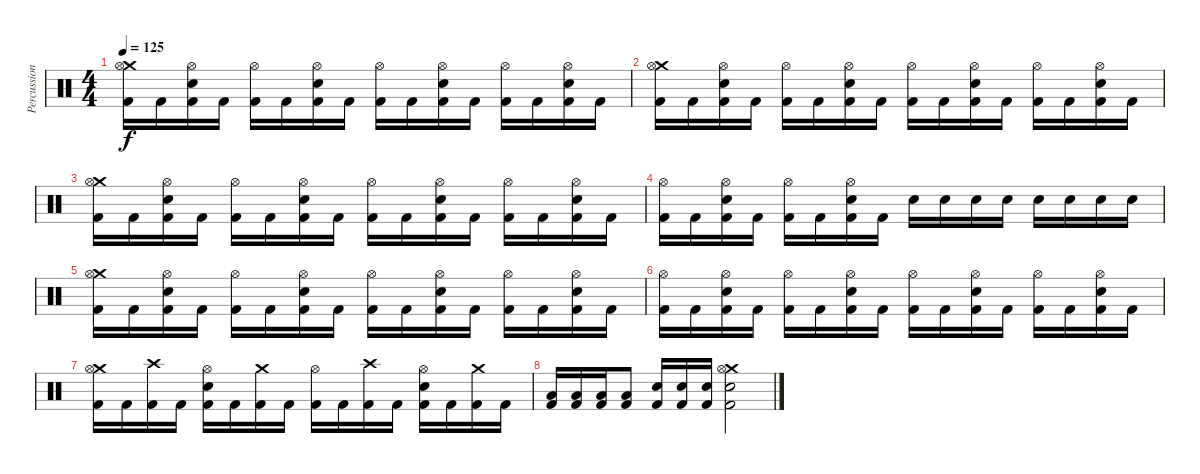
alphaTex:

\track ("Percussion" "Percussion") {instrument percussion}
\staff {score}
\articulation defaults
\ts (4 4)
\tempo 125
\clef neutral
\ks c
("Crash medium (hit)" "Hi-Hat (open)" "Kick (hit) 2").16{dy f} "Kick (hit) 2".16 ("Hi-Hat (open)" "Electric Snare (hit)" "Kick (hit) 2").16 "Kick (hit) 2".16 ("Hi-Hat (open)" "Kick (hit) 2").16 "Kick (hit) 2".16 ("Hi-Hat (open)" "Electric Snare (hit)" "Kick (hit) 2").16 "Kick (hit) 2".16 ("Hi-Hat (open)" "Kick (hit) 2").16 "Kick (hit) 2".16 ("Hi-Hat (open)" "Electric Snare (hit)" "Kick (hit) 2").16 "Kick (hit) 2".16 ("Hi-Hat (open)" "Kick (hit) 2").16 "Kick (hit) 2".16 ("Hi-Hat (open)" "Electric Snare (hit)" "Kick (hit) 2").16 "Kick (hit) 2".16 |
("Crash medium (hit)" "Hi-Hat (open)" "Kick (hit) 2").16 "Kick (hit) 2".16 ("Hi-Hat (open)" "Electric Snare (hit)" "Kick (hit) 2").16 "Kick (hit) 2".16 ("Hi-Hat (open)" "Kick (hit) 2").16 "Kick (hit) 2".16 ("Hi-Hat (open)" "Electric Snare (hit)" "Kick (hit) 2").16 "Kick (hit) 2".16 ("Hi-Hat (open)" "Kick (hit) 2").16 "Kick (hit) 2".16 ("Hi-Hat (open)" "Electric Snare (hit)" "Kick (hit) 2").16 "Kick (hit) 2".16 ("Hi-Hat (open)" "Kick (hit) 2").16 "Kick (hit) 2".16 ("Hi-Hat (open)" "Electric Snare (hit)" "Kick (hit) 2").16 "Kick (hit) 2".16 |
("Crash medium (hit)" "Hi-Hat (open)" "Kick (hit) 2").16 "Kick (hit) 2".16 ("Hi-Hat (open)" "Electric Snare (hit)" "Kick (hit) 2").16 "Kick (hit) 2".16 ("Hi-Hat (open)" "Kick (hit) 2").16 "Kick (hit) 2".16 ("Hi-Hat (open)" "Electric Snare (hit)" "Kick (hit) 2").16 "Kick (hit) 2".16 ("Hi-Hat (open)" "Kick (hit) 2").16 "Kick (hit) 2".16 ("Hi-Hat (open)" "Electric Snare (hit)" "Kick (hit) 2").16 "Kick (hit) 2".16 ("Hi-Hat (open)" "Kick (hit) 2").16 "Kick (hit) 2".16 ("Hi-Hat (open)" "Electric Snare (hit)" "Kick (hit) 2").16 "Kick (hit) 2".16 |
("Hi-Hat (open)" "Kick (hit) 2").16 "Kick (hit) 2".16 ("Hi-Hat (open)" "Electric Snare (hit)" "Kick (hit) 2").16 "Kick (hit) 2".16 ("Hi-Hat (open)" "Kick (hit) 2").16 "Kick (hit) 2".16 ("Hi-Hat (open)" "Electric Snare (hit)" "Kick (hit) 2").16 "Kick (hit) 2".16 "Electric Snare (hit)".16 "Electric Snare (hit)".16 "Electric Snare (hit)".16 "Electric Snare (hit)".16 "Electric Snare (hit)".16 "Electric Snare (hit)".16 "Electric Snare (hit)".16 "Electric Snare (hit)".16 |
("Crash medium (hit)" "Hi-Hat (open)" "Kick (hit) 2").16 "Kick (hit) 2".16 ("Hi-Hat (open)" "Electric Snare (hit)" "Kick (hit) 2").16 "Kick (hit) 2".16 ("Hi-Hat (open)" "Kick (hit) 2").16 "Kick (hit) 2".16 ("Hi-Hat (open)" "Electric Snare (hit)" "Kick (hit) 2").16 "Kick (hit) 2".16 ("Hi-Hat (open)" "Kick (hit) 2").16 "Kick (hit) 2".16 ("Hi-Hat (open)" "Electric Snare (hit)" "Kick (hit) 2").16 "Kick (hit) 2".16 ("Hi-Hat (open)" "Kick (hit) 2").16 "Kick (hit) 2".16 ("Hi-Hat (open)" "Electric Snare (hit)" "Kick (hit) 2").16 "Kick (hit) 2".16 |
("Hi-Hat (open)" "Kick (hit) 2").16 "Kick (hit) 2".16 ("Hi-Hat (open)" "Electric Snare (hit)" "Kick (hit) 2").16 "Kick (hit) 2".16 ("Hi-Hat (open)" "Kick (hit) 2").16 "Kick (hit) 2".16 ("Hi-Hat (open)" "Electric Snare (hit)" "Kick (hit) 2").16 "Kick (hit) 2".16 ("Hi-Hat (open)" "Kick (hit) 2").16 "Kick (hit) 2".16 ("Hi-Hat (open)" "Electric Snare (hit)" "Kick (hit) 2").16 "Kick (hit) 2".16 ("Hi-Hat (open)" "Kick (hit) 2").16 "Kick (hit) 2".16 ("Hi-Hat (open)" "Electric Snare (hit)" "Kick (hit) 2").16 "Kick (hit) 2".16 |
("Crash medium (hit)" "Hi-Hat (open)" "Kick (hit) 2").16 "Kick (hit) 2".16 ("Crash high (hit)" "Kick (hit) 2").16 "Kick (hit) 2".16 ("Hi-Hat (open)" "Electric Snare (hit)" "Kick (hit) 2").16 "Kick (hit) 2".16 ("Crash medium (hit)" "Kick (hit) 2").16 "Kick (hit) 2".16 ("Hi-Hat (open)" "Kick (hit) 2").16 "Kick (hit) 2".16 ("Crash high (hit)" "Kick (hit) 2").16 "Kick (hit) 2".16 ("Hi-Hat (open)" "Electric Snare (hit)" "Kick (hit) 2").16 "Kick (hit) 2".16 ("Crash medium (hit)" "Kick (hit) 2").16 "Kick (hit) 2".16 |
("Low Floor Tom (hit)" "Kick (hit) 2").16 ("Low Floor Tom (hit)" "Kick (hit) 2").16 ("Low Floor Tom (hit)" "Kick (hit) 2").16 ("Low Floor Tom (hit)" "Kick (hit) 2").8 ("Electric Snare (hit)" "Kick (hit) 2").16 ("Electric Snare (hit)" "Kick (hit) 2").16 ("Electric Snare (hit)" "Kick (hit) 2").16 ("Crash medium (hit)" "Hi-Hat (open)" "Electric Snare (hit)" "Kick (hit) 2").2
